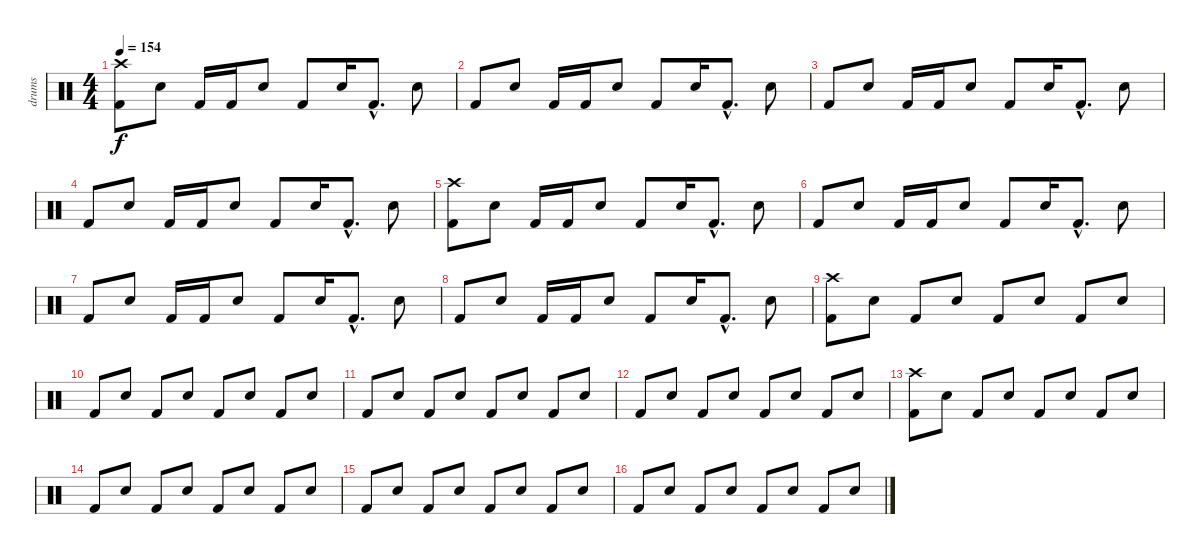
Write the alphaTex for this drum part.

\track ("drums" "drums") {instrument percussion}
\staff {score}
\articulation defaults
\ts (4 4)
\tempo 154
\clef neutral
\ks c
("Crash high (hit)" "Kick (hit) 2").8{dy f} "Snare (hit) 2".8 "Kick (hit) 2".16 "Kick (hit) 2".16 "Snare (hit) 2".8 "Kick (hit) 2".8 "Snare (hit) 2".16 "Kick (hit) 2"{hac}.8{d} "Snare (hit) 2".8 |
"Kick (hit) 2".8 "Snare (hit) 2".8 "Kick (hit) 2".16 "Kick (hit) 2".16 "Snare (hit) 2".8 "Kick (hit) 2".8 "Snare (hit) 2".16 "Kick (hit) 2"{hac}.8{d} "Snare (hit) 2".8 |
"Kick (hit) 2".8 "Snare (hit) 2".8 "Kick (hit) 2".16 "Kick (hit) 2".16 "Snare (hit) 2".8 "Kick (hit) 2".8 "Snare (hit) 2".16 "Kick (hit) 2"{hac}.8{d} "Snare (hit) 2".8 |
"Kick (hit) 2".8 "Snare (hit) 2".8 "Kick (hit) 2".16 "Kick (hit) 2".16 "Snare (hit) 2".8 "Kick (hit) 2".8 "Snare (hit) 2".16 "Kick (hit) 2"{hac}.8{d} "Snare (hit) 2".8 |
("Crash high (hit)" "Kick (hit) 2").8 "Snare (hit) 2".8 "Kick (hit) 2".16 "Kick (hit) 2".16 "Snare (hit) 2".8 "Kick (hit) 2".8 "Snare (hit) 2".16 "Kick (hit) 2"{hac}.8{d} "Snare (hit) 2".8 |
"Kick (hit) 2".8 "Snare (hit) 2".8 "Kick (hit) 2".16 "Kick (hit) 2".16 "Snare (hit) 2".8 "Kick (hit) 2".8 "Snare (hit) 2".16 "Kick (hit) 2"{hac}.8{d} "Snare (hit) 2".8 |
"Kick (hit) 2".8 "Snare (hit) 2".8 "Kick (hit) 2".16 "Kick (hit) 2".16 "Snare (hit) 2".8 "Kick (hit) 2".8 "Snare (hit) 2".16 "Kick (hit) 2"{hac}.8{d} "Snare (hit) 2".8 |
"Kick (hit) 2".8 "Snare (hit) 2".8 "Kick (hit) 2".16 "Kick (hit) 2".16 "Snare (hit) 2".8 "Kick (hit) 2".8 "Snare (hit) 2".16 "Kick (hit) 2"{hac}.8{d} "Snare (hit) 2".8 |
("Crash high (hit)" "Kick (hit) 2").8 "Snare (hit) 2".8 "Kick (hit) 2".8 "Snare (hit) 2".8 "Kick (hit) 2".8 "Snare (hit) 2".8 "Kick (hit) 2".8 "Snare (hit) 2".8 |
"Kick (hit) 2".8 "Snare (hit) 2".8 "Kick (hit) 2".8 "Snare (hit) 2".8 "Kick (hit) 2".8 "Snare (hit) 2".8 "Kick (hit) 2".8 "Snare (hit) 2".8 |
"Kick (hit) 2".8 "Snare (hit) 2".8 "Kick (hit) 2".8 "Snare (hit) 2".8 "Kick (hit) 2".8 "Snare (hit) 2".8 "Kick (hit) 2".8 "Snare (hit) 2".8 |
"Kick (hit) 2".8 "Snare (hit) 2".8 "Kick (hit) 2".8 "Snare (hit) 2".8 "Kick (hit) 2".8 "Snare (hit) 2".8 "Kick (hit) 2".8 "Snare (hit) 2".8 |
("Crash high (hit)" "Kick (hit) 2").8 "Snare (hit) 2".8 "Kick (hit) 2".8 "Snare (hit) 2".8 "Kick (hit) 2".8 "Snare (hit) 2".8 "Kick (hit) 2".8 "Snare (hit) 2".8 |
"Kick (hit) 2".8 "Snare (hit) 2".8 "Kick (hit) 2".8 "Snare (hit) 2".8 "Kick (hit) 2".8 "Snare (hit) 2".8 "Kick (hit) 2".8 "Snare (hit) 2".8 |
"Kick (hit) 2".8 "Snare (hit) 2".8 "Kick (hit) 2".8 "Snare (hit) 2".8 "Kick (hit) 2".8 "Snare (hit) 2".8 "Kick (hit) 2".8 "Snare (hit) 2".8 |
"Kick (hit) 2".8 "Snare (hit) 2".8 "Kick (hit) 2".8 "Snare (hit) 2".8 "Kick (hit) 2".8 "Snare (hit) 2".8 "Kick (hit) 2".8 "Snare (hit) 2".8
